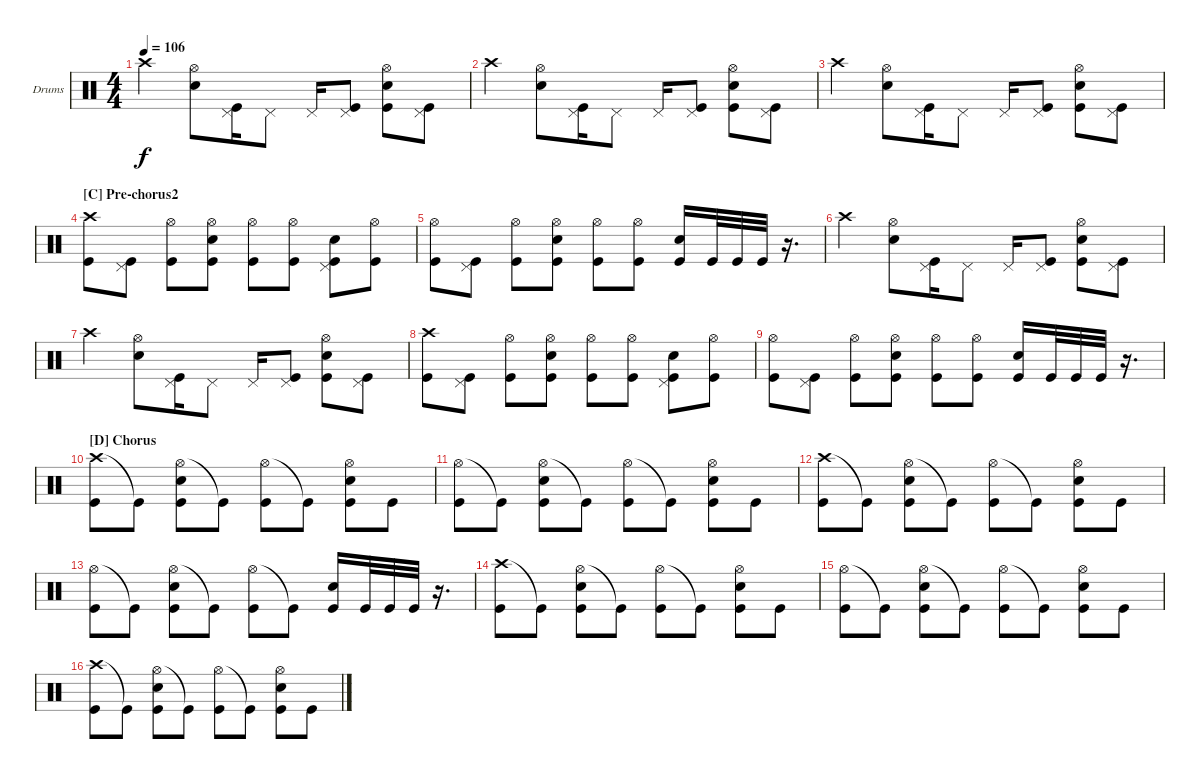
\bracketExtendMode groupsimilarinstruments
\firstSystemTrackNameOrientation horizontal
\otherSystemsTrackNameOrientation horizontal
\track ("Drumkit" "Drums") {instrument percussion}
\staff {score}
\articulation defaults
\ts (4 4)
\tempo 106
\clef neutral
\ks c "Crash high (hit)".4{dy f}
("Hi-Hat (open)" "Snare (hit) 2").8 ("Pedal Hi-Hat (hit)" "Kick (hit)").16 "Pedal Hi-Hat (hit)".8 "Pedal Hi-Hat (hit)".16 ("Pedal Hi-Hat (hit)" "Kick (hit)").8 ("Hi-Hat (open)" "Snare (hit) 2" "Kick (hit)").8 ("Pedal Hi-Hat (hit)" "Kick (hit)").8 |
"Crash high (hit)".4 ("Hi-Hat (open)" "Snare (hit) 2").8 ("Pedal Hi-Hat (hit)" "Kick (hit)").16 "Pedal Hi-Hat (hit)".8 "Pedal Hi-Hat (hit)".16 ("Pedal Hi-Hat (hit)" "Kick (hit)").8 ("Hi-Hat (open)" "Snare (hit) 2" "Kick (hit)").8 ("Pedal Hi-Hat (hit)" "Kick (hit)").8 |
"Crash high (hit)".4 ("Hi-Hat (open)" "Snare (hit) 2").8 ("Pedal Hi-Hat (hit)" "Kick (hit)").16 "Pedal Hi-Hat (hit)".8 "Pedal Hi-Hat (hit)".16 ("Pedal Hi-Hat (hit)" "Kick (hit)").8 ("Hi-Hat (open)" "Snare (hit) 2" "Kick (hit)").8 ("Pedal Hi-Hat (hit)" "Kick (hit)").8 |
\section ("C" "Pre-chorus2")
("Crash high (hit)" "Kick (hit)").8 ("Pedal Hi-Hat (hit)" "Kick (hit)").8 ("Hi-Hat (open)" "Kick (hit)").8 ("Hi-Hat (open)" "Snare (hit) 2" "Kick (hit)").8 ("Hi-Hat (open)" "Kick (hit)").8 ("Hi-Hat (open)" "Kick (hit)").8 ("Pedal Hi-Hat (hit)" "Snare (hit) 2" "Kick (hit)").8 ("Hi-Hat (open)" "Kick (hit)").8 |
("Hi-Hat (open)" "Kick (hit)").8 ("Pedal Hi-Hat (hit)" "Kick (hit)").8 ("Hi-Hat (open)" "Kick (hit)").8 ("Hi-Hat (open)" "Snare (hit) 2" "Kick (hit)").8 ("Hi-Hat (open)" "Kick (hit)").8 ("Hi-Hat (open)" "Kick (hit)").8 ("Snare (hit) 2" "Kick (hit)").16 "Kick (hit)".32 "Kick (hit)".32 "Kick (hit)".32 r.16{d} |
"Crash high (hit)".4 ("Hi-Hat (open)" "Snare (hit) 2").8 ("Pedal Hi-Hat (hit)" "Kick (hit)").16 "Pedal Hi-Hat (hit)".8 "Pedal Hi-Hat (hit)".16 ("Pedal Hi-Hat (hit)" "Kick (hit)").8 ("Hi-Hat (open)" "Snare (hit) 2" "Kick (hit)").8 ("Pedal Hi-Hat (hit)" "Kick (hit)").8 |
"Crash high (hit)".4 ("Hi-Hat (open)" "Snare (hit) 2").8 ("Pedal Hi-Hat (hit)" "Kick (hit)").16 "Pedal Hi-Hat (hit)".8 "Pedal Hi-Hat (hit)".16 ("Pedal Hi-Hat (hit)" "Kick (hit)").8 ("Hi-Hat (open)" "Snare (hit) 2" "Kick (hit)").8 ("Pedal Hi-Hat (hit)" "Kick (hit)").8 |
("Crash high (hit)" "Kick (hit)").8 ("Pedal Hi-Hat (hit)" "Kick (hit)").8 ("Hi-Hat (open)" "Kick (hit)").8 ("Hi-Hat (open)" "Snare (hit) 2" "Kick (hit)").8 ("Hi-Hat (open)" "Kick (hit)").8 ("Hi-Hat (open)" "Kick (hit)").8 ("Pedal Hi-Hat (hit)" "Snare (hit) 2" "Kick (hit)").8 ("Hi-Hat (open)" "Kick (hit)").8 |
("Hi-Hat (open)" "Kick (hit)").8 ("Pedal Hi-Hat (hit)" "Kick (hit)").8 ("Hi-Hat (open)" "Kick (hit)").8 ("Hi-Hat (open)" "Snare (hit) 2" "Kick (hit)").8 ("Hi-Hat (open)" "Kick (hit)").8 ("Hi-Hat (open)" "Kick (hit)").8 ("Snare (hit) 2" "Kick (hit)").16 "Kick (hit)".32 "Kick (hit)".32 "Kick (hit)".32 r.16{d} |
\section ("D" "Chorus")
("Crash high (hit)" "Kick (hit)").8 "Kick (hit)"{t}.8 ("Hi-Hat (open)" "Snare (hit) 2" "Kick (hit)").8 "Kick (hit)"{t}.8 ("Hi-Hat (open)" "Kick (hit)").8 "Kick (hit)"{t}.8 ("Hi-Hat (open)" "Snare (hit) 2" "Kick (hit)").8 "Kick (hit)".8 |
("Hi-Hat (open)" "Kick (hit)").8 "Kick (hit)"{t}.8 ("Hi-Hat (open)" "Snare (hit) 2" "Kick (hit)").8 "Kick (hit)"{t}.8 ("Hi-Hat (open)" "Kick (hit)").8 "Kick (hit)"{t}.8 ("Hi-Hat (open)" "Snare (hit) 2" "Kick (hit)").8 "Kick (hit)".8 |
("Crash high (hit)" "Kick (hit)").8 "Kick (hit)"{t}.8 ("Hi-Hat (open)" "Snare (hit) 2" "Kick (hit)").8 "Kick (hit)"{t}.8 ("Hi-Hat (open)" "Kick (hit)").8 "Kick (hit)"{t}.8 ("Hi-Hat (open)" "Snare (hit) 2" "Kick (hit)").8 "Kick (hit)".8 |
("Hi-Hat (open)" "Kick (hit)").8 "Kick (hit)"{t}.8 ("Hi-Hat (open)" "Snare (hit) 2" "Kick (hit)").8 "Kick (hit)"{t}.8 ("Hi-Hat (open)" "Kick (hit)").8 "Kick (hit)"{t}.8 ("Snare (hit) 2" "Kick (hit)").16 "Kick (hit)".32 "Kick (hit)".32 "Kick (hit)".32 r.16{d} |
("Crash high (hit)" "Kick (hit)").8 "Kick (hit)"{t}.8 ("Hi-Hat (open)" "Snare (hit) 2" "Kick (hit)").8 "Kick (hit)"{t}.8 ("Hi-Hat (open)" "Kick (hit)").8 "Kick (hit)"{t}.8 ("Hi-Hat (open)" "Snare (hit) 2" "Kick (hit)").8 "Kick (hit)".8 |
("Hi-Hat (open)" "Kick (hit)").8 "Kick (hit)"{t}.8 ("Hi-Hat (open)" "Snare (hit) 2" "Kick (hit)").8 "Kick (hit)"{t}.8 ("Hi-Hat (open)" "Kick (hit)").8 "Kick (hit)"{t}.8 ("Hi-Hat (open)" "Snare (hit) 2" "Kick (hit)").8 "Kick (hit)".8 |
("Crash high (hit)" "Kick (hit)").8 "Kick (hit)"{t}.8 ("Hi-Hat (open)" "Snare (hit) 2" "Kick (hit)").8 "Kick (hit)"{t}.8 ("Hi-Hat (open)" "Kick (hit)").8 "Kick (hit)"{t}.8 ("Hi-Hat (open)" "Snare (hit) 2" "Kick (hit)").8 "Kick (hit)".8
